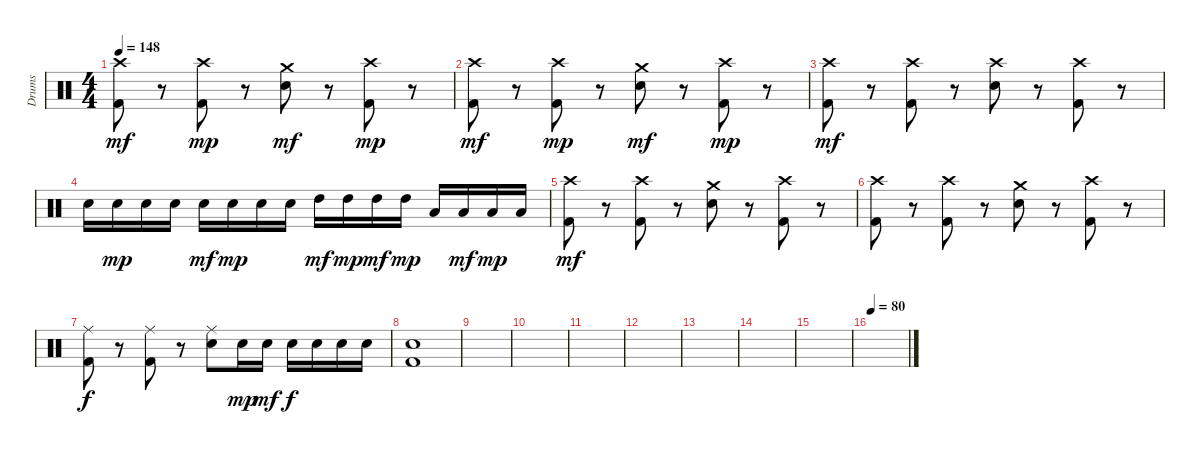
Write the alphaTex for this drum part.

\track ("Drums" "Drums") {instrument percussion}
\staff {score}
\articulation defaults
\ts (4 4)
\tempo 148
\clef neutral
\ks c
("Crash high (hit)" "Kick (hit) 2").8{dy mf} r.8 ("Crash high (hit)" "Kick (hit) 2").8{dy mp} r.8 ("Crash medium (hit)" "Snare (hit) 2").8{dy mf} r.8 ("Crash high (hit)" "Kick (hit) 2").8{dy mp} r.8 |
("Crash high (hit)" "Kick (hit) 2").8{dy mf} r.8 ("Crash high (hit)" "Kick (hit) 2").8{dy mp} r.8 ("Crash medium (hit)" "Snare (hit) 2").8{dy mf} r.8 ("Crash high (hit)" "Kick (hit) 2").8{dy mp} r.8 |
("Crash high (hit)" "Kick (hit) 2").8{dy mf} r.8 ("Crash high (hit)" "Kick (hit) 2").8 r.8 ("Crash high (hit)" "Snare (hit) 2").8 r.8 ("Crash high (hit)" "Kick (hit) 2").8 r.8 |
"Snare (hit) 2".16 "Snare (hit) 2".16{dy mp} "Snare (hit) 2".16 "Snare (hit) 2".16 "Snare (hit) 2".16{dy mf} "Snare (hit) 2".16{dy mp} "Snare (hit) 2".16 "Snare (hit) 2".16 "High Tom (hit)".16{dy mf} "High Tom (hit)".16{dy mp} "High Tom (hit)".16{dy mf} "High Tom (hit)".16{dy mp} "Low Tom (hit)".16 "Low Tom (hit)".16{dy mf} "Low Tom (hit)".16{dy mp} "Low Tom (hit)".16 |
("Crash high (hit)" "Kick (hit) 2").8{dy mf} r.8 ("Crash high (hit)" "Kick (hit) 2").8 r.8 ("Crash medium (hit)" "Snare (hit) 2").8 r.8 ("Crash high (hit)" "Kick (hit) 2").8 r.8 |
("Crash high (hit)" "Kick (hit) 2").8 r.8 ("Crash high (hit)" "Kick (hit) 2").8 r.8 ("Crash medium (hit)" "Snare (hit) 2").8 r.8 ("Crash high (hit)" "Kick (hit) 2").8 r.8 |
("Ride (middle)" "Kick (hit) 2").8{dy f} r.8 ("Ride (middle)" "Kick (hit) 2").8 r.8 ("Ride (middle)" "Snare (hit) 2").8 "Snare (hit) 2".16{dy mp} "Snare (hit) 2".16{dy mf} "Snare (hit) 2".16{dy f} "Snare (hit) 2".16 "Snare (hit) 2".16 "Snare (hit) 2".16 |
("Snare (hit) 2" "Kick (hit) 2").1 |
|
|
|
|
|
|
|
\tempo 80
